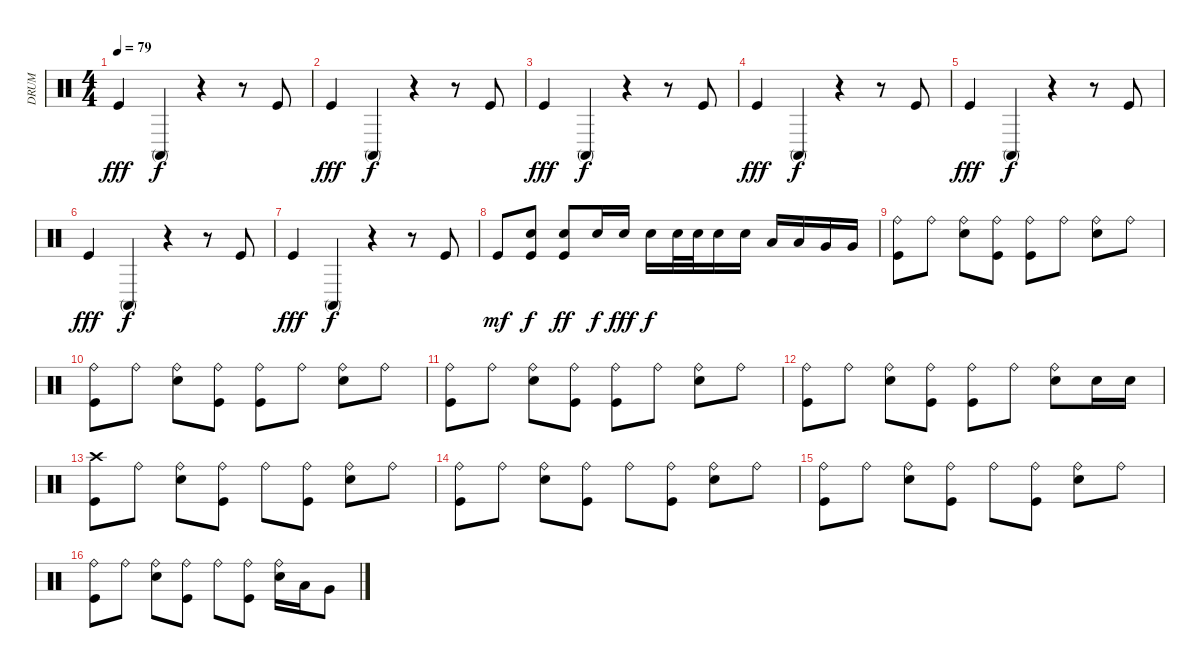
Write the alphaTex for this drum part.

\track ("DRUM" "DRUM") {instrument percussion}
\staff {score}
\articulation defaults
\ts (4 4)
\tempo 79
\clef neutral
\ks c "Kick (hit)".4{dy fff} "Conga high (mute)".4{dy f}
r.4 r.8 "Kick (hit)".8 |
"Kick (hit)".4{dy fff} "Conga high (mute)".4{dy f} r.4 r.8 "Kick (hit)".8 |
"Kick (hit)".4{dy fff} "Conga high (mute)".4{dy f} r.4 r.8 "Kick (hit)".8 |
"Kick (hit)".4{dy fff} "Conga high (mute)".4{dy f} r.4 r.8 "Kick (hit)".8 |
"Kick (hit)".4{dy fff} "Conga high (mute)".4{dy f} r.4 r.8 "Kick (hit)".8 |
"Kick (hit)".4{dy fff} "Conga high (mute)".4{dy f} r.4 r.8 "Kick (hit)".8 |
"Kick (hit)".4{dy fff} "Conga high (mute)".4{dy f} r.4 r.8 "Kick (hit)".8 |
"Kick (hit)".8{dy mf} ("Electric Snare (hit)" "Kick (hit)").8{dy f} ("Electric Snare (hit)" "Kick (hit)").8{dy ff} "Electric Snare (hit)".16{dy f} "Electric Snare (hit)".16{dy fff} "Electric Snare (hit)".16{dy f} "Electric Snare (hit)".32 "Electric Snare (hit)".32 "Electric Snare (hit)".16 "Electric Snare (hit)".16 "Low Tom (hit)".16 "Low Tom (hit)".16 "Very Low Tom (hit)".16 "Very Low Tom (hit)".16 |
("Ride (bell)" "Kick (hit)").8 "Ride (bell)".8 ("Ride (bell)" "Electric Snare (hit)").8 ("Ride (bell)" "Kick (hit)").8 ("Ride (bell)" "Kick (hit)").8 "Ride (bell)".8 ("Ride (bell)" "Electric Snare (hit)").8 "Ride (bell)".8 |
("Ride (bell)" "Kick (hit)").8 "Ride (bell)".8 ("Ride (bell)" "Electric Snare (hit)").8 ("Ride (bell)" "Kick (hit)").8 ("Ride (bell)" "Kick (hit)").8 "Ride (bell)".8 ("Ride (bell)" "Electric Snare (hit)").8 "Ride (bell)".8 |
("Ride (bell)" "Kick (hit)").8 "Ride (bell)".8 ("Ride (bell)" "Electric Snare (hit)").8 ("Ride (bell)" "Kick (hit)").8 ("Ride (bell)" "Kick (hit)").8 "Ride (bell)".8 ("Ride (bell)" "Electric Snare (hit)").8 "Ride (bell)".8 |
("Ride (bell)" "Kick (hit)").8 "Ride (bell)".8 ("Ride (bell)" "Electric Snare (hit)").8 ("Ride (bell)" "Kick (hit)").8 ("Ride (bell)" "Kick (hit)").8 "Ride (bell)".8 ("Ride (bell)" "Electric Snare (hit)").8 "Electric Snare (hit)".16 "Electric Snare (hit)".16 |
("Crash high (hit)" "Kick (hit)").8 "Ride (bell)".8 ("Ride (bell)" "Electric Snare (hit)").8 ("Ride (bell)" "Kick (hit)").8 "Ride (bell)".8 ("Ride (bell)" "Kick (hit)").8 ("Ride (bell)" "Electric Snare (hit)").8 "Ride (bell)".8 |
("Ride (bell)" "Kick (hit)").8 "Ride (bell)".8 ("Ride (bell)" "Electric Snare (hit)").8 ("Ride (bell)" "Kick (hit)").8 "Ride (bell)".8 ("Ride (bell)" "Kick (hit)").8 ("Ride (bell)" "Electric Snare (hit)").8 "Ride (bell)".8 |
("Ride (bell)" "Kick (hit)").8 "Ride (bell)".8 ("Ride (bell)" "Electric Snare (hit)").8 ("Ride (bell)" "Kick (hit)").8 "Ride (bell)".8 ("Ride (bell)" "Kick (hit)").8 ("Ride (bell)" "Electric Snare (hit)").8 "Ride (bell)".8 |
("Ride (bell)" "Kick (hit)").8 "Ride (bell)".8 ("Ride (bell)" "Electric Snare (hit)").8 ("Ride (bell)" "Kick (hit)").8 "Ride (bell)".8 ("Ride (bell)" "Kick (hit)").8 ("Ride (bell)" "Electric Snare (hit)").16 "Low Tom (hit)".16 "Very Low Tom (hit)".8
